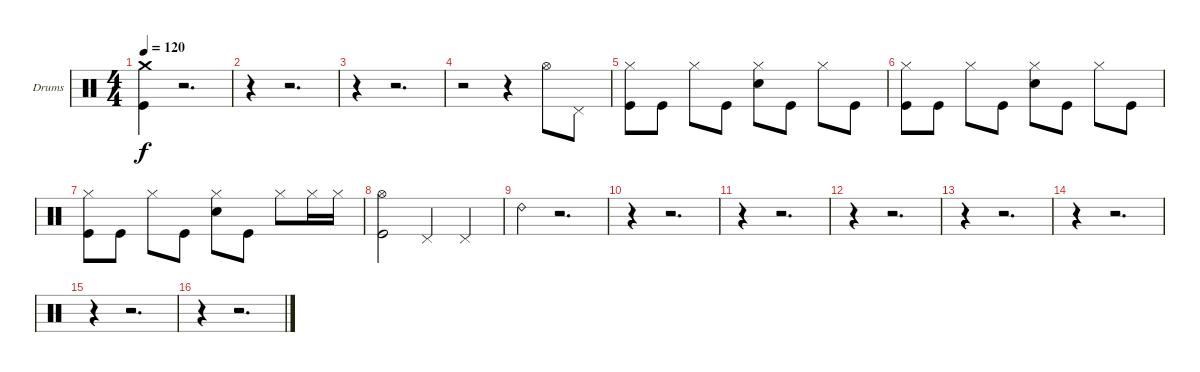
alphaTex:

\bracketExtendMode groupsimilarinstruments
\firstSystemTrackNameOrientation horizontal
\otherSystemsTrackNameOrientation horizontal
\track ("Drumkit" "Drums") {instrument percussion}
\staff {score}
\articulation defaults
\ts (4 4)
\tempo 120
\clef neutral
\ks c
("Crash medium (hit)" "Kick (hit)").4{dy f} r.2{d} |
r.4 r.2{d} |
r.4 r.2{d} |
r.2 r.4 "Hi-Hat (open)".8 "Pedal Hi-Hat (hit)".8 |
("Hi-Hat (closed)" "Kick (hit)").8 "Kick (hit)".8 "Hi-Hat (closed)".8 "Kick (hit)".8 ("Hi-Hat (closed)" "Snare (hit) 2").8 "Kick (hit)".8 "Hi-Hat (closed)".8 "Kick (hit)".8 |
("Hi-Hat (closed)" "Kick (hit)").8 "Kick (hit)".8 "Hi-Hat (closed)".8 "Kick (hit)".8 ("Hi-Hat (closed)" "Snare (hit) 2").8 "Kick (hit)".8 "Hi-Hat (closed)".8 "Kick (hit)".8 |
("Hi-Hat (closed)" "Kick (hit)").8 "Kick (hit)".8 "Hi-Hat (closed)".8 "Kick (hit)".8 ("Hi-Hat (closed)" "Snare (hit) 2").8 "Kick (hit)".8 "Hi-Hat (closed)".8 "Hi-Hat (closed)".16 "Hi-Hat (closed)".16 |
("Hi-Hat (open)" "Kick (hit)").2 "Pedal Hi-Hat (hit)".4 "Pedal Hi-Hat (hit)".4 |
"Ride (bell) 2".4 r.2{d} |
r.4 r.2{d} |
r.4 r.2{d} |
r.4 r.2{d} |
r.4 r.2{d} |
r.4 r.2{d} |
r.4 r.2{d} |
r.4 r.2{d}
